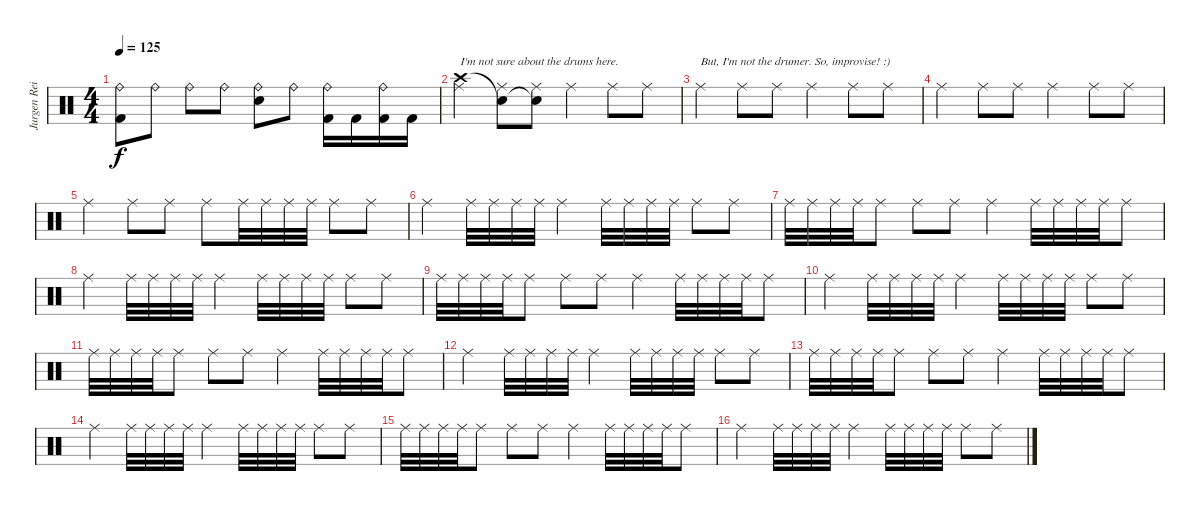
\track ("Jurgen Reil" "Jurgen Rei") {instrument percussion}
\staff {score}
\articulation defaults
\ts (4 4)
\tempo 125
\clef neutral
\ks c
("Ride (bell)" "Kick (hit) 2").8{dy f} "Ride (bell)".8 "Ride (bell)".8 "Ride (bell)".8 ("Ride (bell)" "Snare (hit) 2").8 "Ride (bell)".8 ("Ride (bell)" "Kick (hit) 2").16 "Kick (hit) 2".16 ("Ride (bell)" "Kick (hit) 2").16 "Kick (hit) 2".16 |
("Ride (middle)" "Crash high (hit)").4{txt "I'm not sure about the drums here." volume 9} ("Ride (middle)" "Snare (hit)"{t}).8 ("Ride (middle)" "Snare (hit)"{t}).8 "Ride (middle)".4 "Ride (middle)".8 "Ride (middle)".8 |
"Ride (middle)".4{txt "But, I'm not the drumer. So, improvise! :)"} "Ride (middle)".8 "Ride (middle)".8 "Ride (middle)".4 "Ride (middle)".8 "Ride (middle)".8 |
"Ride (middle)".4 "Ride (middle)".8 "Ride (middle)".8 "Ride (middle)".4 "Ride (middle)".8 "Ride (middle)".8 |
"Ride (middle)".4 "Ride (middle)".8 "Ride (middle)".8 "Ride (middle)".8 "Ride (middle)".32 "Ride (middle)".32 "Ride (middle)".32 "Ride (middle)".32 "Ride (middle)".8 "Ride (middle)".8 |
"Ride (middle)".4 "Ride (middle)".32 "Ride (middle)".32 "Ride (middle)".32 "Ride (middle)".32 "Ride (middle)".4 "Ride (middle)".32 "Ride (middle)".32 "Ride (middle)".32 "Ride (middle)".32 "Ride (middle)".8 "Ride (middle)".8 |
"Ride (middle)".32 "Ride (middle)".32 "Ride (middle)".32 "Ride (middle)".32 "Ride (middle)".8 "Ride (middle)".8 "Ride (middle)".8 "Ride (middle)".4 "Ride (middle)".32 "Ride (middle)".32 "Ride (middle)".32 "Ride (middle)".32 "Ride (middle)".8 |
"Ride (middle)".4 "Ride (middle)".32 "Ride (middle)".32 "Ride (middle)".32 "Ride (middle)".32 "Ride (middle)".4 "Ride (middle)".32 "Ride (middle)".32 "Ride (middle)".32 "Ride (middle)".32 "Ride (middle)".8 "Ride (middle)".8 |
"Ride (middle)".32 "Ride (middle)".32 "Ride (middle)".32 "Ride (middle)".32 "Ride (middle)".8 "Ride (middle)".8 "Ride (middle)".8 "Ride (middle)".4 "Ride (middle)".32 "Ride (middle)".32 "Ride (middle)".32 "Ride (middle)".32 "Ride (middle)".8 |
"Ride (middle)".4 "Ride (middle)".32 "Ride (middle)".32 "Ride (middle)".32 "Ride (middle)".32 "Ride (middle)".4 "Ride (middle)".32 "Ride (middle)".32 "Ride (middle)".32 "Ride (middle)".32 "Ride (middle)".8 "Ride (middle)".8 |
"Ride (middle)".32 "Ride (middle)".32 "Ride (middle)".32 "Ride (middle)".32 "Ride (middle)".8 "Ride (middle)".8 "Ride (middle)".8 "Ride (middle)".4 "Ride (middle)".32 "Ride (middle)".32 "Ride (middle)".32 "Ride (middle)".32 "Ride (middle)".8 |
"Ride (middle)".4 "Ride (middle)".32 "Ride (middle)".32 "Ride (middle)".32 "Ride (middle)".32 "Ride (middle)".4 "Ride (middle)".32 "Ride (middle)".32 "Ride (middle)".32 "Ride (middle)".32 "Ride (middle)".8 "Ride (middle)".8 |
"Ride (middle)".32 "Ride (middle)".32 "Ride (middle)".32 "Ride (middle)".32 "Ride (middle)".8 "Ride (middle)".8 "Ride (middle)".8 "Ride (middle)".4 "Ride (middle)".32 "Ride (middle)".32 "Ride (middle)".32 "Ride (middle)".32 "Ride (middle)".8 |
"Ride (middle)".4 "Ride (middle)".32 "Ride (middle)".32 "Ride (middle)".32 "Ride (middle)".32 "Ride (middle)".4 "Ride (middle)".32 "Ride (middle)".32 "Ride (middle)".32 "Ride (middle)".32 "Ride (middle)".8 "Ride (middle)".8 |
"Ride (middle)".32 "Ride (middle)".32 "Ride (middle)".32 "Ride (middle)".32 "Ride (middle)".8 "Ride (middle)".8 "Ride (middle)".8 "Ride (middle)".4 "Ride (middle)".32 "Ride (middle)".32 "Ride (middle)".32 "Ride (middle)".32 "Ride (middle)".8 |
"Ride (middle)".4 "Ride (middle)".32 "Ride (middle)".32 "Ride (middle)".32 "Ride (middle)".32 "Ride (middle)".4 "Ride (middle)".32 "Ride (middle)".32 "Ride (middle)".32 "Ride (middle)".32 "Ride (middle)".8 "Ride (middle)".8
